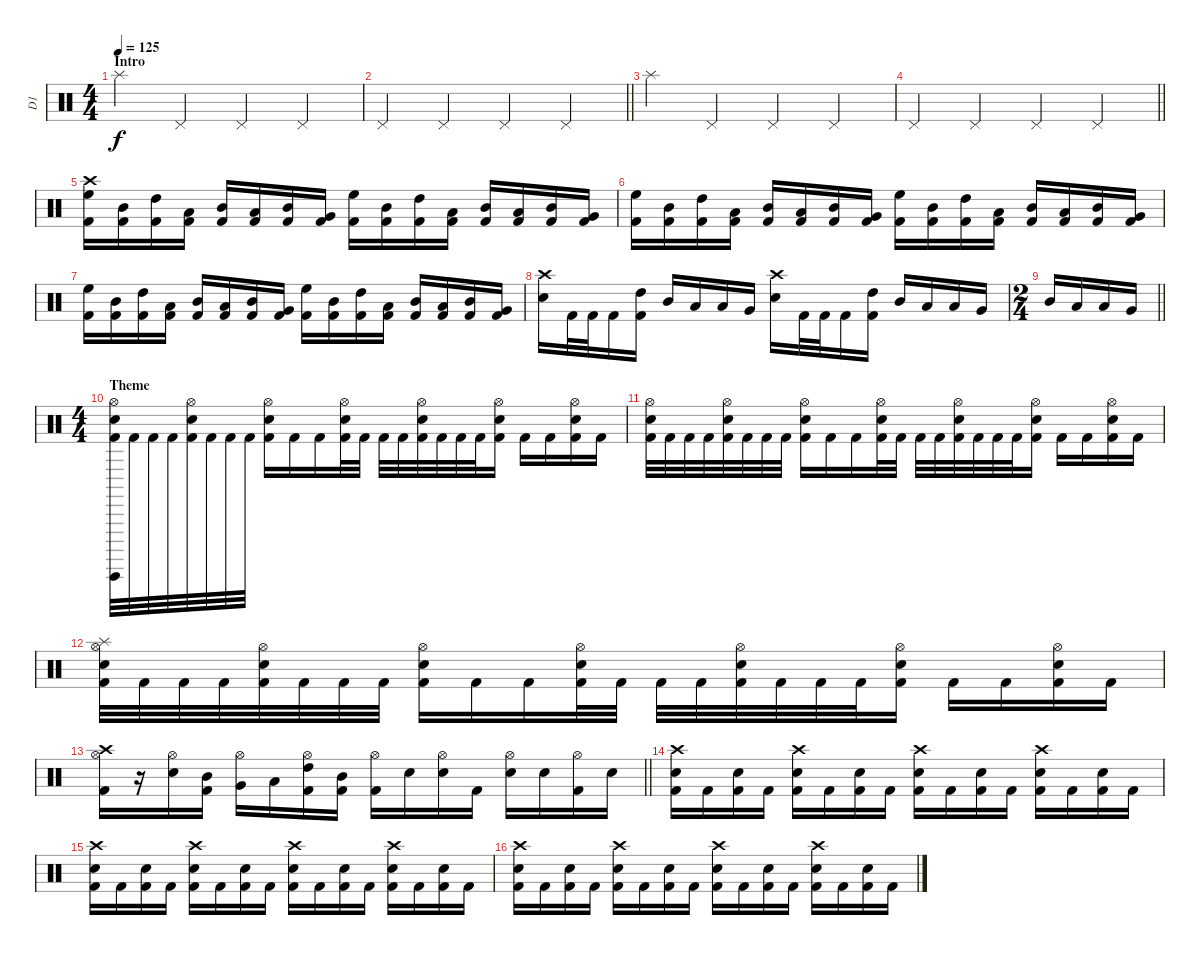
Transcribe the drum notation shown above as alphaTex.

\track ("D1" "D1") {instrument percussion}
\staff {score}
\articulation defaults
\ts (4 4)
\section ("" "Intro")
\tempo 125
\clef neutral
\ks c "Splash (hit)".4{dy f} "Pedal Hi-Hat (hit)".4 "Pedal Hi-Hat (hit)".4 "Pedal Hi-Hat (hit)".4
|
\barLineRight lightlight "Pedal Hi-Hat (hit)".4 "Pedal Hi-Hat (hit)".4 "Pedal Hi-Hat (hit)".4 "Pedal Hi-Hat (hit)".4
|
"Splash (hit)".4 "Pedal Hi-Hat (hit)".4 "Pedal Hi-Hat (hit)".4 "Pedal Hi-Hat (hit)".4 |
\barLineRight lightlight "Pedal Hi-Hat (hit)".4 "Pedal Hi-Hat (hit)".4 "Pedal Hi-Hat (hit)".4 "Pedal Hi-Hat (hit)".4
|
\section ("" "")
("High Floor Tom (hit)" "Crash high (hit)" "Kick (hit) 2").16 ("Mid Tom (hit)" "Kick (hit) 2").16 ("High Tom (hit)" "Kick (hit) 2").16 ("Low Tom (hit)" "Kick (hit) 2").16 ("Mid Tom (hit)" "Kick (hit) 2").16 ("Low Tom (hit)" "Kick (hit) 2").16 ("Mid Tom (hit)" "Kick (hit) 2").16 ("Very Low Tom (hit)" "Kick (hit) 2").16 ("High Floor Tom (hit)" "Kick (hit) 2").16 ("Mid Tom (hit)" "Kick (hit) 2").16 ("High Tom (hit)" "Kick (hit) 2").16 ("Low Tom (hit)" "Kick (hit) 2").16 ("Mid Tom (hit)" "Kick (hit) 2").16 ("Low Tom (hit)" "Kick (hit) 2").16 ("Mid Tom (hit)" "Kick (hit) 2").16 ("Very Low Tom (hit)" "Kick (hit) 2").16 |
("High Floor Tom (hit)" "Kick (hit) 2").16 ("Mid Tom (hit)" "Kick (hit) 2").16 ("High Tom (hit)" "Kick (hit) 2").16 ("Low Tom (hit)" "Kick (hit) 2").16 ("Mid Tom (hit)" "Kick (hit) 2").16 ("Low Tom (hit)" "Kick (hit) 2").16 ("Mid Tom (hit)" "Kick (hit) 2").16 ("Very Low Tom (hit)" "Kick (hit) 2").16 ("High Floor Tom (hit)" "Kick (hit) 2").16 ("Mid Tom (hit)" "Kick (hit) 2").16 ("High Tom (hit)" "Kick (hit) 2").16 ("Low Tom (hit)" "Kick (hit) 2").16 ("Mid Tom (hit)" "Kick (hit) 2").16 ("Low Tom (hit)" "Kick (hit) 2").16 ("Mid Tom (hit)" "Kick (hit) 2").16 ("Very Low Tom (hit)" "Kick (hit) 2").16 |
("High Floor Tom (hit)" "Kick (hit) 2").16 ("Mid Tom (hit)" "Kick (hit) 2").16 ("High Tom (hit)" "Kick (hit) 2").16 ("Low Tom (hit)" "Kick (hit) 2").16 ("Mid Tom (hit)" "Kick (hit) 2").16 ("Low Tom (hit)" "Kick (hit) 2").16 ("Mid Tom (hit)" "Kick (hit) 2").16 ("Very Low Tom (hit)" "Kick (hit) 2").16 ("High Floor Tom (hit)" "Kick (hit) 2").16 ("Mid Tom (hit)" "Kick (hit) 2").16 ("High Tom (hit)" "Kick (hit) 2").16 ("Low Tom (hit)" "Kick (hit) 2").16 ("Mid Tom (hit)" "Kick (hit) 2").16 ("Low Tom (hit)" "Kick (hit) 2").16 ("Mid Tom (hit)" "Kick (hit) 2").16 ("Very Low Tom (hit)" "Kick (hit) 2").16 |
("Crash high (hit)" "Snare (hit) 2").16 "Kick (hit) 2".32 "Kick (hit) 2".32 "Kick (hit) 2".16 ("High Tom (hit)" "Kick (hit) 2").16 "Mid Tom (hit)".16 "Low Tom (hit)".16 "Low Tom (hit)".16 "Very Low Tom (hit)".16 ("Crash high (hit)" "Snare (hit) 2").16 "Kick (hit) 2".32 "Kick (hit) 2".32 "Kick (hit) 2".16 ("High Tom (hit)" "Kick (hit) 2").16 "Mid Tom (hit)".16 "Low Tom (hit)".16 "Low Tom (hit)".16 "Very Low Tom (hit)".16 |
\ts (2 4)
\barLineRight lightlight "Mid Tom (hit)".16 "Low Tom (hit)".16 "Low Tom (hit)".16 "Very Low Tom (hit)".16
|
\ts (4 4)
\section ("" "Theme")
("Guiro (hit)" "Hi-Hat (open)" "Snare (hit) 2" "Kick (hit) 2").32 "Kick (hit) 2".32 "Kick (hit) 2".32 "Kick (hit) 2".32 ("Hi-Hat (open)" "Snare (hit) 2" "Kick (hit) 2").32 "Kick (hit) 2".32 "Kick (hit) 2".32 "Kick (hit) 2".32 ("Hi-Hat (open)" "Snare (hit) 2" "Kick (hit) 2").16 "Kick (hit) 2".16 "Kick (hit) 2".16 ("Hi-Hat (open)" "Snare (hit) 2" "Kick (hit) 2").32 "Kick (hit) 2".32 "Kick (hit) 2".32 "Kick (hit) 2".32 ("Hi-Hat (open)" "Snare (hit) 2" "Kick (hit) 2").32 "Kick (hit) 2".32 "Kick (hit) 2".32 "Kick (hit) 2".32 ("Hi-Hat (open)" "Snare (hit) 2" "Kick (hit) 2").16 "Kick (hit) 2".16 "Kick (hit) 2".16 ("Hi-Hat (open)" "Snare (hit) 2" "Kick (hit) 2").16 "Kick (hit) 2".16 |
("Hi-Hat (open)" "Snare (hit) 2" "Kick (hit) 2").32 "Kick (hit) 2".32 "Kick (hit) 2".32 "Kick (hit) 2".32 ("Hi-Hat (open)" "Snare (hit) 2" "Kick (hit) 2").32 "Kick (hit) 2".32 "Kick (hit) 2".32 "Kick (hit) 2".32 ("Hi-Hat (open)" "Snare (hit) 2" "Kick (hit) 2").16 "Kick (hit) 2".16 "Kick (hit) 2".16 ("Hi-Hat (open)" "Snare (hit) 2" "Kick (hit) 2").32 "Kick (hit) 2".32 "Kick (hit) 2".32 "Kick (hit) 2".32 ("Hi-Hat (open)" "Snare (hit) 2" "Kick (hit) 2").32 "Kick (hit) 2".32 "Kick (hit) 2".32 "Kick (hit) 2".32 ("Hi-Hat (open)" "Snare (hit) 2" "Kick (hit) 2").16 "Kick (hit) 2".16 "Kick (hit) 2".16 ("Hi-Hat (open)" "Snare (hit) 2" "Kick (hit) 2").16 "Kick (hit) 2".16 |
("Splash (hit)" "Hi-Hat (open)" "Snare (hit) 2" "Kick (hit) 2").32 "Kick (hit) 2".32 "Kick (hit) 2".32 "Kick (hit) 2".32 ("Hi-Hat (open)" "Snare (hit) 2" "Kick (hit) 2").32 "Kick (hit) 2".32 "Kick (hit) 2".32 "Kick (hit) 2".32 ("Hi-Hat (open)" "Snare (hit) 2" "Kick (hit) 2").16 "Kick (hit) 2".16 "Kick (hit) 2".16 ("Hi-Hat (open)" "Snare (hit) 2" "Kick (hit) 2").32 "Kick (hit) 2".32 "Kick (hit) 2".32 "Kick (hit) 2".32 ("Hi-Hat (open)" "Snare (hit) 2" "Kick (hit) 2").32 "Kick (hit) 2".32 "Kick (hit) 2".32 "Kick (hit) 2".32 ("Hi-Hat (open)" "Snare (hit) 2" "Kick (hit) 2").16 "Kick (hit) 2".16 "Kick (hit) 2".16 ("Hi-Hat (open)" "Snare (hit) 2" "Kick (hit) 2").16 "Kick (hit) 2".16 |
\barLineRight lightlight
("Crash high (hit)" "Hi-Hat (open)" "Kick (hit) 2").16 r.16 ("Hi-Hat (open)" "Snare (hit) 2").16 ("Mid Tom (hit)" "Kick (hit) 2").16 ("Hi-Hat (open)" "Very Low Tom (hit)").16 "Low Tom (hit)".16 ("Hi-Hat (open)" "High Tom (hit)" "Kick (hit) 2").16 ("Mid Tom (hit)" "Kick (hit) 2").16 ("Hi-Hat (open)" "Kick (hit) 2").16 "Snare (hit) 2".16 ("Hi-Hat (open)" "Snare (hit) 2").16 "Kick (hit) 2".16 ("Hi-Hat (open)" "Snare (hit) 2").16 "Snare (hit) 2".16 ("Hi-Hat (open)" "Kick (hit) 2").16 "Snare (hit) 2".16 |
\section ("" "")
("Crash high (hit)" "Snare (hit) 2" "Kick (hit) 2").16 "Kick (hit) 2".16 ("Snare (hit) 2" "Kick (hit) 2").16 "Kick (hit) 2".16 ("Crash high (hit)" "Snare (hit) 2" "Kick (hit) 2").16 "Kick (hit) 2".16 ("Snare (hit) 2" "Kick (hit) 2").16 "Kick (hit) 2".16 ("Crash high (hit)" "Snare (hit) 2" "Kick (hit) 2").16 "Kick (hit) 2".16 ("Snare (hit) 2" "Kick (hit) 2").16 "Kick (hit) 2".16 ("Crash high (hit)" "Snare (hit) 2" "Kick (hit) 2").16 "Kick (hit) 2".16 ("Snare (hit) 2" "Kick (hit) 2").16 "Kick (hit) 2".16 |
("Crash high (hit)" "Snare (hit) 2" "Kick (hit) 2").16 "Kick (hit) 2".16 ("Snare (hit) 2" "Kick (hit) 2").16 "Kick (hit) 2".16 ("Crash high (hit)" "Snare (hit) 2" "Kick (hit) 2").16 "Kick (hit) 2".16 ("Snare (hit) 2" "Kick (hit) 2").16 "Kick (hit) 2".16 ("Crash high (hit)" "Snare (hit) 2" "Kick (hit) 2").16 "Kick (hit) 2".16 ("Snare (hit) 2" "Kick (hit) 2").16 "Kick (hit) 2".16 ("Crash high (hit)" "Snare (hit) 2" "Kick (hit) 2").16 "Kick (hit) 2".16 ("Snare (hit) 2" "Kick (hit) 2").16 "Kick (hit) 2".16 |
("Crash high (hit)" "Snare (hit) 2" "Kick (hit) 2").16 "Kick (hit) 2".16 ("Snare (hit) 2" "Kick (hit) 2").16 "Kick (hit) 2".16 ("Crash high (hit)" "Snare (hit) 2" "Kick (hit) 2").16 "Kick (hit) 2".16 ("Snare (hit) 2" "Kick (hit) 2").16 "Kick (hit) 2".16 ("Crash high (hit)" "Snare (hit) 2" "Kick (hit) 2").16 "Kick (hit) 2".16 ("Snare (hit) 2" "Kick (hit) 2").16 "Kick (hit) 2".16 ("Crash high (hit)" "Snare (hit) 2" "Kick (hit) 2").16 "Kick (hit) 2".16 ("Snare (hit) 2" "Kick (hit) 2").16 "Kick (hit) 2".16
